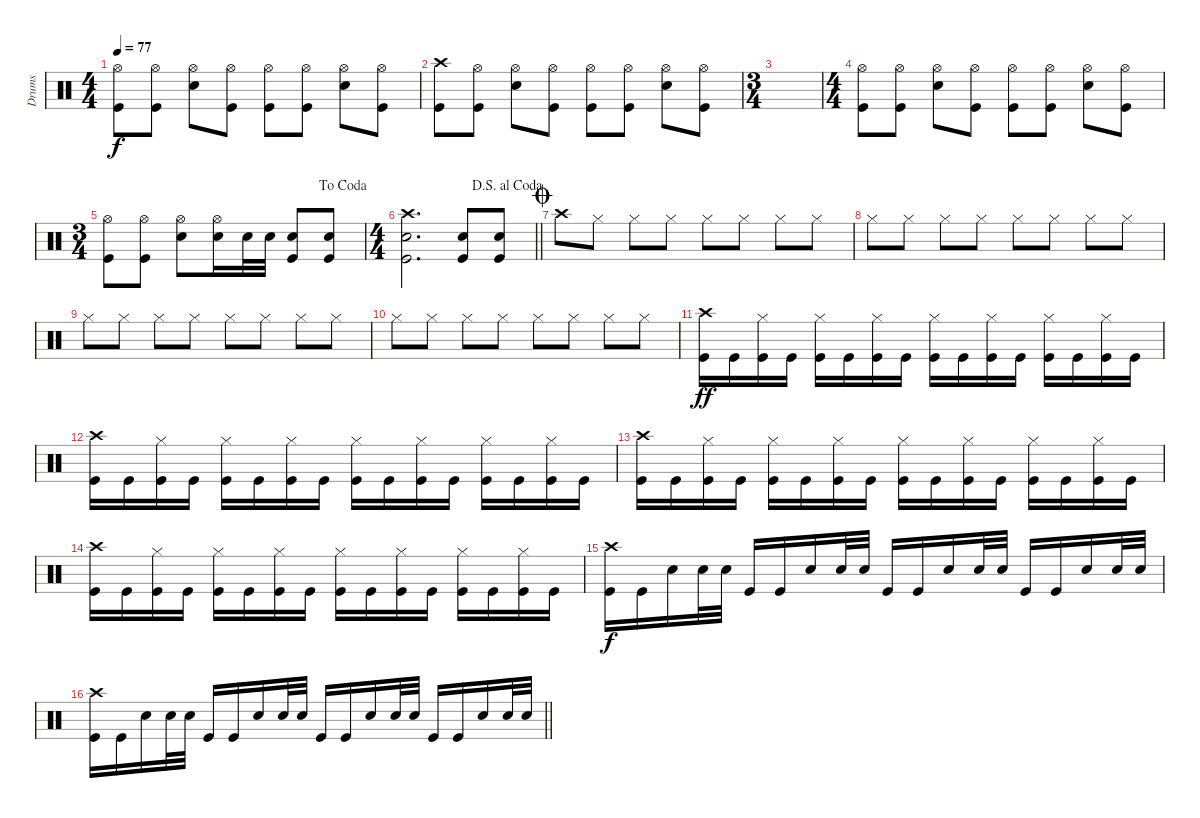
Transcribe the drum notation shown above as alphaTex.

\track ("Drums" "Drums") {instrument percussion}
\staff {score}
\articulation defaults
\ts (4 4)
\tempo 77
\clef neutral
\ks c
("Hi-Hat (open)" "Kick (hit)").8{dy f} ("Hi-Hat (open)" "Kick (hit)").8 ("Hi-Hat (open)" "Snare (hit) 2").8 ("Hi-Hat (open)" "Kick (hit)").8 ("Hi-Hat (open)" "Kick (hit)").8 ("Hi-Hat (open)" "Kick (hit)").8 ("Hi-Hat (open)" "Snare (hit) 2").8 ("Hi-Hat (open)" "Kick (hit)").8 |
("Crash high (hit)" "Kick (hit)").8 ("Hi-Hat (open)" "Kick (hit)").8 ("Hi-Hat (open)" "Snare (hit) 2").8 ("Hi-Hat (open)" "Kick (hit)").8 ("Hi-Hat (open)" "Kick (hit)").8 ("Hi-Hat (open)" "Kick (hit)").8 ("Hi-Hat (open)" "Snare (hit) 2").8 ("Hi-Hat (open)" "Kick (hit)").8 |
\ts (3 4)
|
\ts (4 4)
("Hi-Hat (open)" "Kick (hit)").8 ("Hi-Hat (open)" "Kick (hit)").8 ("Hi-Hat (open)" "Snare (hit) 2").8 ("Hi-Hat (open)" "Kick (hit)").8 ("Hi-Hat (open)" "Kick (hit)").8 ("Hi-Hat (open)" "Kick (hit)").8 ("Hi-Hat (open)" "Snare (hit) 2").8 ("Hi-Hat (open)" "Kick (hit)").8 |
\ts (3 4)
\jump dacoda
("Hi-Hat (open)" "Kick (hit)").8 ("Hi-Hat (open)" "Kick (hit)").8 ("Hi-Hat (open)" "Snare (hit) 2").8 ("Hi-Hat (open)" "Snare (hit) 2").16 "Snare (hit) 2".32 "Snare (hit) 2".32 ("Snare (hit) 2" "Kick (hit)").8 ("Snare (hit) 2" "Kick (hit)").8 |
\ts (4 4)
\jump dalsegnoalcoda
\barLineRight lightlight
("Crash high (hit)" "Snare (hit) 2" "Kick (hit)").2{d} ("Snare (hit) 2" "Kick (hit)").8 ("Snare (hit) 2" "Kick (hit)").8 |
\jump coda "Crash high (hit)".8 "Hi-Hat (closed)".8 "Hi-Hat (closed)".8 "Hi-Hat (closed)".8 "Hi-Hat (closed)".8 "Hi-Hat (closed)".8 "Hi-Hat (closed)".8 "Hi-Hat (closed)".8
|
"Hi-Hat (closed)".8 "Hi-Hat (closed)".8 "Hi-Hat (closed)".8 "Hi-Hat (closed)".8 "Hi-Hat (closed)".8 "Hi-Hat (closed)".8 "Hi-Hat (closed)".8 "Hi-Hat (closed)".8 |
"Hi-Hat (closed)".8 "Hi-Hat (closed)".8 "Hi-Hat (closed)".8 "Hi-Hat (closed)".8 "Hi-Hat (closed)".8 "Hi-Hat (closed)".8 "Hi-Hat (closed)".8 "Hi-Hat (closed)".8 |
"Hi-Hat (closed)".8 "Hi-Hat (closed)".8 "Hi-Hat (closed)".8 "Hi-Hat (closed)".8 "Hi-Hat (closed)".8 "Hi-Hat (closed)".8 "Hi-Hat (closed)".8 "Hi-Hat (closed)".8 |
("Crash high (hit)" "Kick (hit)").16{dy ff} "Kick (hit)".16 ("Hi-Hat (closed)" "Kick (hit)").16 "Kick (hit)".16 ("Hi-Hat (closed)" "Kick (hit)").16 "Kick (hit)".16 ("Hi-Hat (closed)" "Kick (hit)").16 "Kick (hit)".16 ("Hi-Hat (closed)" "Kick (hit)").16 "Kick (hit)".16 ("Hi-Hat (closed)" "Kick (hit)").16 "Kick (hit)".16 ("Hi-Hat (closed)" "Kick (hit)").16 "Kick (hit)".16 ("Hi-Hat (closed)" "Kick (hit)").16 "Kick (hit)".16 |
("Crash high (hit)" "Kick (hit)").16 "Kick (hit)".16 ("Hi-Hat (closed)" "Kick (hit)").16 "Kick (hit)".16 ("Hi-Hat (closed)" "Kick (hit)").16 "Kick (hit)".16 ("Hi-Hat (closed)" "Kick (hit)").16 "Kick (hit)".16 ("Hi-Hat (closed)" "Kick (hit)").16 "Kick (hit)".16 ("Hi-Hat (closed)" "Kick (hit)").16 "Kick (hit)".16 ("Hi-Hat (closed)" "Kick (hit)").16 "Kick (hit)".16 ("Hi-Hat (closed)" "Kick (hit)").16 "Kick (hit)".16 |
("Crash high (hit)" "Kick (hit)").16 "Kick (hit)".16 ("Hi-Hat (closed)" "Kick (hit)").16 "Kick (hit)".16 ("Hi-Hat (closed)" "Kick (hit)").16 "Kick (hit)".16 ("Hi-Hat (closed)" "Kick (hit)").16 "Kick (hit)".16 ("Hi-Hat (closed)" "Kick (hit)").16 "Kick (hit)".16 ("Hi-Hat (closed)" "Kick (hit)").16 "Kick (hit)".16 ("Hi-Hat (closed)" "Kick (hit)").16 "Kick (hit)".16 ("Hi-Hat (closed)" "Kick (hit)").16 "Kick (hit)".16 |
("Crash high (hit)" "Kick (hit)").16 "Kick (hit)".16 ("Hi-Hat (closed)" "Kick (hit)").16 "Kick (hit)".16 ("Hi-Hat (closed)" "Kick (hit)").16 "Kick (hit)".16 ("Hi-Hat (closed)" "Kick (hit)").16 "Kick (hit)".16 ("Hi-Hat (closed)" "Kick (hit)").16 "Kick (hit)".16 ("Hi-Hat (closed)" "Kick (hit)").16 "Kick (hit)".16 ("Hi-Hat (closed)" "Kick (hit)").16 "Kick (hit)".16 ("Hi-Hat (closed)" "Kick (hit)").16 "Kick (hit)".16 |
("Crash high (hit)" "Kick (hit)").16{dy f} "Kick (hit)".16 "Snare (hit) 2".16 "Snare (hit) 2".32 "Snare (hit) 2".32 "Kick (hit)".16 "Kick (hit)".16 "Snare (hit) 2".16 "Snare (hit) 2".32 "Snare (hit) 2".32 "Kick (hit)".16 "Kick (hit)".16 "Snare (hit) 2".16 "Snare (hit) 2".32 "Snare (hit) 2".32 "Kick (hit)".16 "Kick (hit)".16 "Snare (hit) 2".16 "Snare (hit) 2".32 "Snare (hit) 2".32 |
\barLineRight lightlight
("Crash high (hit)" "Kick (hit)").16 "Kick (hit)".16 "Snare (hit) 2".16 "Snare (hit) 2".32 "Snare (hit) 2".32 "Kick (hit)".16 "Kick (hit)".16 "Snare (hit) 2".16 "Snare (hit) 2".32 "Snare (hit) 2".32 "Kick (hit)".16 "Kick (hit)".16 "Snare (hit) 2".16 "Snare (hit) 2".32 "Snare (hit) 2".32 "Kick (hit)".16 "Kick (hit)".16 "Snare (hit) 2".16 "Snare (hit) 2".32 "Snare (hit) 2".32
